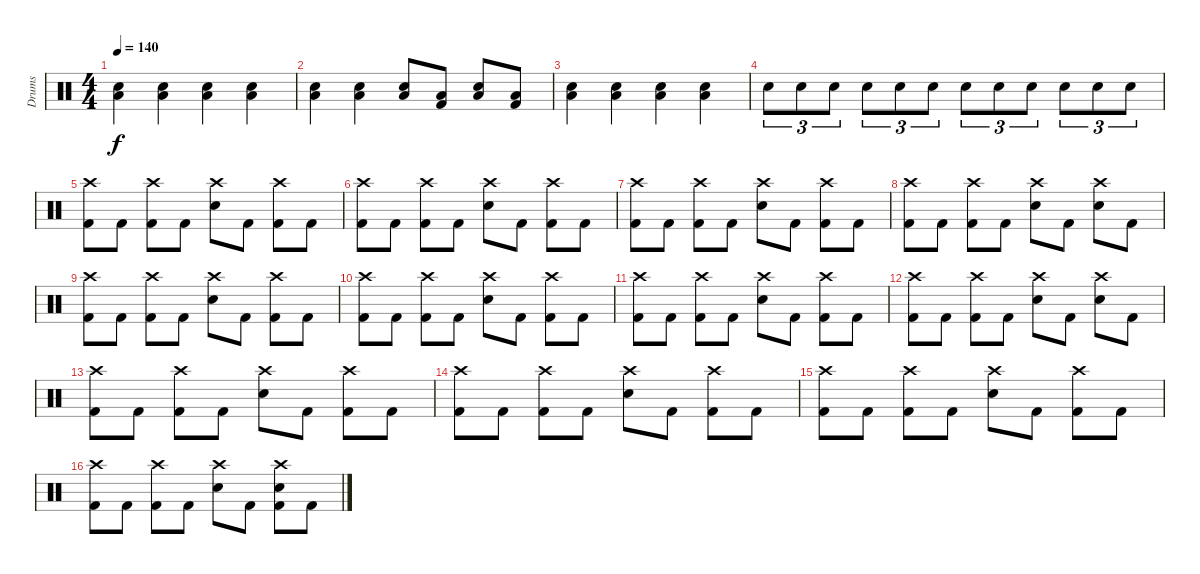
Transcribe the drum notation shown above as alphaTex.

\track ("Drums" "Drums") {instrument percussion}
\staff {score}
\articulation defaults
\ts (4 4)
\tempo 140
\clef neutral
\ks c
("Electric Snare (hit)" "Low Tom (hit)").4{dy f} ("Electric Snare (hit)" "Low Tom (hit)").4 ("Electric Snare (hit)" "Low Tom (hit)").4 ("Electric Snare (hit)" "Low Tom (hit)").4 |
("Electric Snare (hit)" "Low Tom (hit)").4 ("Electric Snare (hit)" "Low Tom (hit)").4 ("Electric Snare (hit)" "Low Tom (hit)").8 ("Low Tom (hit)" "Kick (hit) 2").8 ("Electric Snare (hit)" "Low Tom (hit)").8 ("Low Tom (hit)" "Kick (hit) 2").8 |
("Electric Snare (hit)" "Low Tom (hit)").4 ("Electric Snare (hit)" "Low Tom (hit)").4 ("Electric Snare (hit)" "Low Tom (hit)").4 ("Electric Snare (hit)" "Low Tom (hit)").4 |
"Electric Snare (hit)".8{tu (3 2)} "Electric Snare (hit)".8{tu (3 2)} "Electric Snare (hit)".8{tu (3 2)} "Electric Snare (hit)".8{tu (3 2)} "Electric Snare (hit)".8{tu (3 2)} "Electric Snare (hit)".8{tu (3 2)} "Electric Snare (hit)".8{tu (3 2)} "Electric Snare (hit)".8{tu (3 2)} "Electric Snare (hit)".8{tu (3 2)} "Electric Snare (hit)".8{tu (3 2)} "Electric Snare (hit)".8{tu (3 2)} "Electric Snare (hit)".8{tu (3 2)} |
("Crash high (hit)" "Kick (hit) 2").8 "Kick (hit) 2".8 ("Crash high (hit)" "Kick (hit) 2").8 "Kick (hit) 2".8 ("Crash high (hit)" "Electric Snare (hit)").8 "Kick (hit) 2".8 ("Crash high (hit)" "Kick (hit) 2").8 "Kick (hit) 2".8 |
("Crash high (hit)" "Kick (hit) 2").8 "Kick (hit) 2".8 ("Crash high (hit)" "Kick (hit) 2").8 "Kick (hit) 2".8 ("Crash high (hit)" "Electric Snare (hit)").8 "Kick (hit) 2".8 ("Crash high (hit)" "Kick (hit) 2").8 "Kick (hit) 2".8 |
("Crash high (hit)" "Kick (hit) 2").8 "Kick (hit) 2".8 ("Crash high (hit)" "Kick (hit) 2").8 "Kick (hit) 2".8 ("Crash high (hit)" "Electric Snare (hit)").8 "Kick (hit) 2".8 ("Crash high (hit)" "Kick (hit) 2").8 "Kick (hit) 2".8 |
("Crash high (hit)" "Kick (hit) 2").8 "Kick (hit) 2".8 ("Crash high (hit)" "Kick (hit) 2").8 "Kick (hit) 2".8 ("Crash high (hit)" "Electric Snare (hit)").8 "Kick (hit) 2".8 ("Crash high (hit)" "Electric Snare (hit)").8 "Kick (hit) 2".8 |
("Crash high (hit)" "Kick (hit) 2").8 "Kick (hit) 2".8 ("Crash high (hit)" "Kick (hit) 2").8 "Kick (hit) 2".8 ("Crash high (hit)" "Electric Snare (hit)").8 "Kick (hit) 2".8 ("Crash high (hit)" "Kick (hit) 2").8 "Kick (hit) 2".8 |
("Crash high (hit)" "Kick (hit) 2").8 "Kick (hit) 2".8 ("Crash high (hit)" "Kick (hit) 2").8 "Kick (hit) 2".8 ("Crash high (hit)" "Electric Snare (hit)").8 "Kick (hit) 2".8 ("Crash high (hit)" "Kick (hit) 2").8 "Kick (hit) 2".8 |
("Crash high (hit)" "Kick (hit) 2").8 "Kick (hit) 2".8 ("Crash high (hit)" "Kick (hit) 2").8 "Kick (hit) 2".8 ("Crash high (hit)" "Electric Snare (hit)").8 "Kick (hit) 2".8 ("Crash high (hit)" "Kick (hit) 2").8 "Kick (hit) 2".8 |
("Crash high (hit)" "Kick (hit) 2").8 "Kick (hit) 2".8 ("Crash high (hit)" "Kick (hit) 2").8 "Kick (hit) 2".8 ("Crash high (hit)" "Electric Snare (hit)").8 "Kick (hit) 2".8 ("Crash high (hit)" "Electric Snare (hit)").8 "Kick (hit) 2".8 |
("Crash high (hit)" "Kick (hit) 2").8 "Kick (hit) 2".8 ("Crash high (hit)" "Kick (hit) 2").8 "Kick (hit) 2".8 ("Crash high (hit)" "Electric Snare (hit)").8 "Kick (hit) 2".8 ("Crash high (hit)" "Kick (hit) 2").8 "Kick (hit) 2".8 |
("Crash high (hit)" "Kick (hit) 2").8 "Kick (hit) 2".8 ("Crash high (hit)" "Kick (hit) 2").8 "Kick (hit) 2".8 ("Crash high (hit)" "Electric Snare (hit)").8 "Kick (hit) 2".8 ("Crash high (hit)" "Kick (hit) 2").8 "Kick (hit) 2".8 |
("Crash high (hit)" "Kick (hit) 2").8 "Kick (hit) 2".8 ("Crash high (hit)" "Kick (hit) 2").8 "Kick (hit) 2".8 ("Crash high (hit)" "Electric Snare (hit)").8 "Kick (hit) 2".8 ("Crash high (hit)" "Kick (hit) 2").8 "Kick (hit) 2".8 |
("Crash high (hit)" "Kick (hit) 2").8 "Kick (hit) 2".8 ("Crash high (hit)" "Kick (hit) 2").8 "Kick (hit) 2".8 ("Crash high (hit)" "Electric Snare (hit)").8 "Kick (hit) 2".8 ("Crash high (hit)" "Electric Snare (hit)" "Kick (hit) 2").8 "Kick (hit) 2".8
